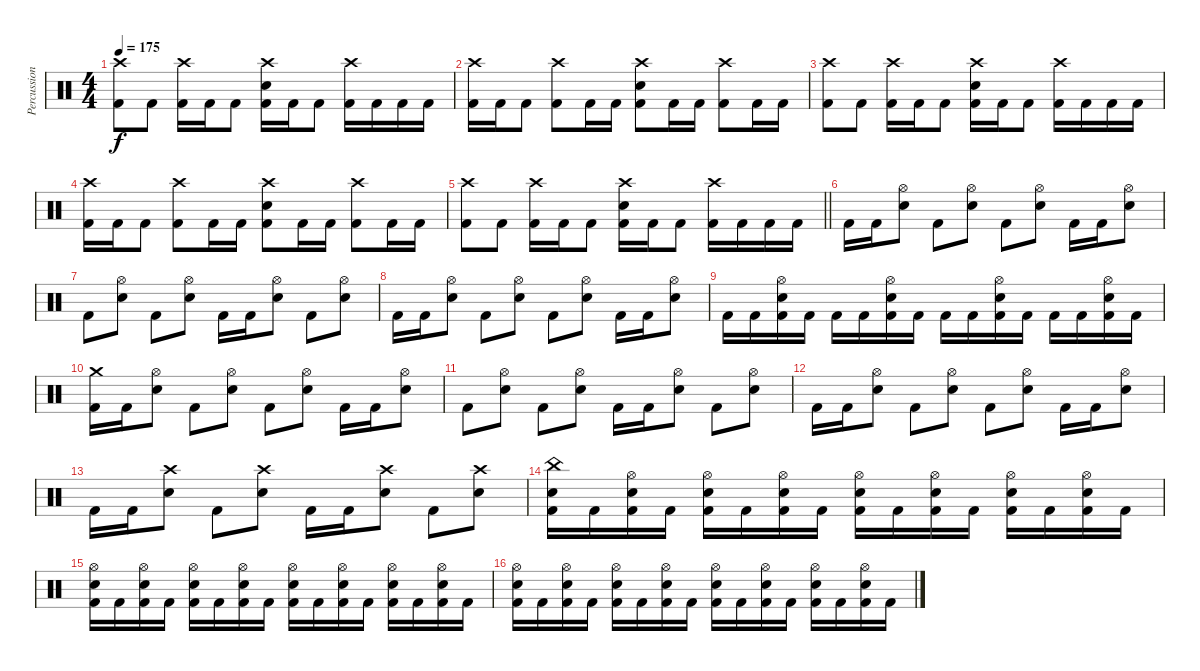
\track ("Percussion" "Percussion") {instrument percussion}
\staff {score}
\articulation defaults
\ts (4 4)
\tempo 175
\clef neutral
\ks c
("Crash high (hit)" "Kick (hit) 2").8{dy f} "Kick (hit) 2".8 ("Crash high (hit)" "Kick (hit) 2").16 "Kick (hit) 2".16 "Kick (hit) 2".8 ("Crash high (hit)" "Snare (hit) 2" "Kick (hit) 2").16 "Kick (hit) 2".16 "Kick (hit) 2".8 ("Crash high (hit)" "Kick (hit) 2").16 "Kick (hit) 2".16 "Kick (hit) 2".16 "Kick (hit) 2".16 |
("Crash high (hit)" "Kick (hit) 2").16 "Kick (hit) 2".16 "Kick (hit) 2".8 ("Crash high (hit)" "Kick (hit) 2").8 "Kick (hit) 2".16 "Kick (hit) 2".16 ("Crash high (hit)" "Snare (hit) 2" "Kick (hit) 2").8 "Kick (hit) 2".16 "Kick (hit) 2".16 ("Crash high (hit)" "Kick (hit) 2").8 "Kick (hit) 2".16 "Kick (hit) 2".16 |
("Crash high (hit)" "Kick (hit) 2").8 "Kick (hit) 2".8 ("Crash high (hit)" "Kick (hit) 2").16 "Kick (hit) 2".16 "Kick (hit) 2".8 ("Crash high (hit)" "Snare (hit) 2" "Kick (hit) 2").16 "Kick (hit) 2".16 "Kick (hit) 2".8 ("Crash high (hit)" "Kick (hit) 2").16 "Kick (hit) 2".16 "Kick (hit) 2".16 "Kick (hit) 2".16 |
("Crash high (hit)" "Kick (hit) 2").16 "Kick (hit) 2".16 "Kick (hit) 2".8 ("Crash high (hit)" "Kick (hit) 2").8 "Kick (hit) 2".16 "Kick (hit) 2".16 ("Crash high (hit)" "Snare (hit) 2" "Kick (hit) 2").8 "Kick (hit) 2".16 "Kick (hit) 2".16 ("Crash high (hit)" "Kick (hit) 2").8 "Kick (hit) 2".16 "Kick (hit) 2".16 |
\barLineRight lightlight
("Crash high (hit)" "Kick (hit) 2").8 "Kick (hit) 2".8 ("Crash high (hit)" "Kick (hit) 2").16 "Kick (hit) 2".16 "Kick (hit) 2".8 ("Crash high (hit)" "Snare (hit) 2" "Kick (hit) 2").16 "Kick (hit) 2".16 "Kick (hit) 2".8 ("Crash high (hit)" "Kick (hit) 2").16 "Kick (hit) 2".16 "Kick (hit) 2".16 "Kick (hit) 2".16 |
\section ("" "")
"Kick (hit) 2".16 "Kick (hit) 2".16 ("Hi-Hat (open)" "Snare (hit) 2").8 "Kick (hit) 2".8 ("Hi-Hat (open)" "Snare (hit) 2").8 "Kick (hit) 2".8 ("Hi-Hat (open)" "Snare (hit) 2").8 "Kick (hit) 2".16 "Kick (hit) 2".16 ("Hi-Hat (open)" "Snare (hit) 2").8 |
"Kick (hit) 2".8 ("Hi-Hat (open)" "Snare (hit) 2").8 "Kick (hit) 2".8 ("Hi-Hat (open)" "Snare (hit) 2").8 "Kick (hit) 2".16 "Kick (hit) 2".16 ("Hi-Hat (open)" "Snare (hit) 2").8 "Kick (hit) 2".8 ("Hi-Hat (open)" "Snare (hit) 2").8 |
"Kick (hit) 2".16 "Kick (hit) 2".16 ("Hi-Hat (open)" "Snare (hit) 2").8 "Kick (hit) 2".8 ("Hi-Hat (open)" "Snare (hit) 2").8 "Kick (hit) 2".8 ("Hi-Hat (open)" "Snare (hit) 2").8 "Kick (hit) 2".16 "Kick (hit) 2".16 ("Hi-Hat (open)" "Snare (hit) 2").8 |
"Kick (hit) 2".16 "Kick (hit) 2".16 ("Hi-Hat (open)" "Snare (hit) 2" "Kick (hit) 2").16 "Kick (hit) 2".16 "Kick (hit) 2".16 "Kick (hit) 2".16 ("Hi-Hat (open)" "Snare (hit) 2" "Kick (hit) 2").16 "Kick (hit) 2".16 "Kick (hit) 2".16 "Kick (hit) 2".16 ("Hi-Hat (open)" "Snare (hit) 2" "Kick (hit) 2").16 "Kick (hit) 2".16 "Kick (hit) 2".16 "Kick (hit) 2".16 ("Hi-Hat (open)" "Snare (hit) 2" "Kick (hit) 2").16 "Kick (hit) 2".16 |
("Crash medium (hit)" "Kick (hit) 2").16 "Kick (hit) 2".16 ("Hi-Hat (open)" "Snare (hit) 2").8 "Kick (hit) 2".8 ("Hi-Hat (open)" "Snare (hit) 2").8 "Kick (hit) 2".8 ("Hi-Hat (open)" "Snare (hit) 2").8 "Kick (hit) 2".16 "Kick (hit) 2".16 ("Hi-Hat (open)" "Snare (hit) 2").8 |
"Kick (hit) 2".8 ("Hi-Hat (open)" "Snare (hit) 2").8 "Kick (hit) 2".8 ("Hi-Hat (open)" "Snare (hit) 2").8 "Kick (hit) 2".16 "Kick (hit) 2".16 ("Hi-Hat (open)" "Snare (hit) 2").8 "Kick (hit) 2".8 ("Hi-Hat (open)" "Snare (hit) 2").8 |
"Kick (hit) 2".16 "Kick (hit) 2".16 ("Hi-Hat (open)" "Snare (hit) 2").8 "Kick (hit) 2".8 ("Hi-Hat (open)" "Snare (hit) 2").8 "Kick (hit) 2".8 ("Hi-Hat (open)" "Snare (hit) 2").8 "Kick (hit) 2".16 "Kick (hit) 2".16 ("Hi-Hat (open)" "Snare (hit) 2").8 |
"Kick (hit) 2".16 "Kick (hit) 2".16 ("Crash high (hit)" "Snare (hit) 2").8 "Kick (hit) 2".8 ("Crash high (hit)" "Snare (hit) 2").8 "Kick (hit) 2".16 "Kick (hit) 2".16 ("Crash high (hit)" "Snare (hit) 2").8 "Kick (hit) 2".8 ("Crash high (hit)" "Snare (hit) 2").8 |
("China (hit)" "Snare (hit) 2" "Kick (hit) 2").16 "Kick (hit) 2".16 ("Hi-Hat (open)" "Snare (hit) 2" "Kick (hit) 2").16 "Kick (hit) 2".16 ("Hi-Hat (open)" "Snare (hit) 2" "Kick (hit) 2").16 "Kick (hit) 2".16 ("Hi-Hat (open)" "Snare (hit) 2" "Kick (hit) 2").16 "Kick (hit) 2".16 ("Hi-Hat (open)" "Snare (hit) 2" "Kick (hit) 2").16 "Kick (hit) 2".16 ("Hi-Hat (open)" "Snare (hit) 2" "Kick (hit) 2").16 "Kick (hit) 2".16 ("Hi-Hat (open)" "Snare (hit) 2" "Kick (hit) 2").16 "Kick (hit) 2".16 ("Hi-Hat (open)" "Snare (hit) 2" "Kick (hit) 2").16 "Kick (hit) 2".16 |
("Hi-Hat (open)" "Snare (hit) 2" "Kick (hit) 2").16 "Kick (hit) 2".16 ("Hi-Hat (open)" "Snare (hit) 2" "Kick (hit) 2").16 "Kick (hit) 2".16 ("Hi-Hat (open)" "Snare (hit) 2" "Kick (hit) 2").16 "Kick (hit) 2".16 ("Hi-Hat (open)" "Snare (hit) 2" "Kick (hit) 2").16 "Kick (hit) 2".16 ("Hi-Hat (open)" "Snare (hit) 2" "Kick (hit) 2").16 "Kick (hit) 2".16 ("Hi-Hat (open)" "Snare (hit) 2" "Kick (hit) 2").16 "Kick (hit) 2".16 ("Hi-Hat (open)" "Snare (hit) 2" "Kick (hit) 2").16 "Kick (hit) 2".16 ("Hi-Hat (open)" "Snare (hit) 2" "Kick (hit) 2").16 "Kick (hit) 2".16 |
("Hi-Hat (open)" "Snare (hit) 2" "Kick (hit) 2").16 "Kick (hit) 2".16 ("Hi-Hat (open)" "Snare (hit) 2" "Kick (hit) 2").16 "Kick (hit) 2".16 ("Hi-Hat (open)" "Snare (hit) 2" "Kick (hit) 2").16 "Kick (hit) 2".16 ("Hi-Hat (open)" "Snare (hit) 2" "Kick (hit) 2").16 "Kick (hit) 2".16 ("Hi-Hat (open)" "Snare (hit) 2" "Kick (hit) 2").16 "Kick (hit) 2".16 ("Hi-Hat (open)" "Snare (hit) 2" "Kick (hit) 2").16 "Kick (hit) 2".16 ("Hi-Hat (open)" "Snare (hit) 2" "Kick (hit) 2").16 "Kick (hit) 2".16 ("Hi-Hat (open)" "Snare (hit) 2" "Kick (hit) 2").16 "Kick (hit) 2".16
